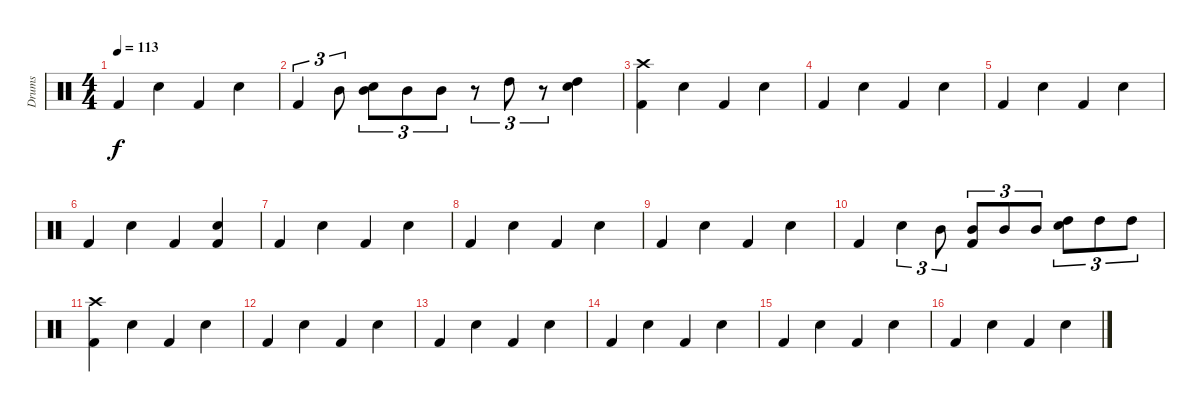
\track ("Drums" "Drums") {instrument percussion}
\staff {score}
\articulation defaults
\ts (4 4)
\tempo 113
\clef neutral
\ks c "Kick (hit) 2".4{dy f} "Electric Snare (hit)".4 "Kick (hit) 2".4 "Electric Snare (hit)".4
|
"Kick (hit) 2".4{tu (3 2)} "Mid Tom (hit)".8{tu (3 2)} ("Mid Tom (hit)" "Electric Snare (hit)").8{tu (3 2)} "Mid Tom (hit)".8{tu (3 2)} "Mid Tom (hit)".8{tu (3 2)} r.8{tu (3 2)} "High Tom (hit)".8{tu (3 2)} r.8{tu (3 2)} ("High Tom (hit)" "Electric Snare (hit)").4 |
("Crash high (hit)" "Kick (hit) 2").4 "Electric Snare (hit)".4 "Kick (hit) 2".4 "Electric Snare (hit)".4 |
"Kick (hit) 2".4 "Electric Snare (hit)".4 "Kick (hit) 2".4 "Electric Snare (hit)".4 |
"Kick (hit) 2".4 "Electric Snare (hit)".4 "Kick (hit) 2".4 "Electric Snare (hit)".4 |
"Kick (hit) 2".4 "Electric Snare (hit)".4 "Kick (hit) 2".4 ("Electric Snare (hit)" "Kick (hit) 2").4 |
"Kick (hit) 2".4 "Electric Snare (hit)".4 "Kick (hit) 2".4 "Electric Snare (hit)".4 |
"Kick (hit) 2".4 "Electric Snare (hit)".4 "Kick (hit) 2".4 "Electric Snare (hit)".4 |
"Kick (hit) 2".4 "Electric Snare (hit)".4 "Kick (hit) 2".4 "Electric Snare (hit)".4 |
"Kick (hit) 2".4 "Electric Snare (hit)".4{tu (3 2)} "Mid Tom (hit)".8{tu (3 2)} ("Mid Tom (hit)" "Kick (hit) 2").8{tu (3 2)} "Mid Tom (hit)".8{tu (3 2)} "Mid Tom (hit)".8{tu (3 2)} ("High Tom (hit)" "Electric Snare (hit)").8{tu (3 2)} "High Tom (hit)".8{tu (3 2)} "High Tom (hit)".8{tu (3 2)} |
("Crash high (hit)" "Kick (hit) 2").4 "Electric Snare (hit)".4 "Kick (hit) 2".4 "Electric Snare (hit)".4 |
"Kick (hit) 2".4 "Electric Snare (hit)".4 "Kick (hit) 2".4 "Electric Snare (hit)".4 |
"Kick (hit) 2".4 "Electric Snare (hit)".4 "Kick (hit) 2".4 "Electric Snare (hit)".4 |
"Kick (hit) 2".4 "Electric Snare (hit)".4 "Kick (hit) 2".4 "Electric Snare (hit)".4 |
"Kick (hit) 2".4 "Electric Snare (hit)".4 "Kick (hit) 2".4 "Electric Snare (hit)".4 |
"Kick (hit) 2".4 "Electric Snare (hit)".4 "Kick (hit) 2".4 "Electric Snare (hit)".4
